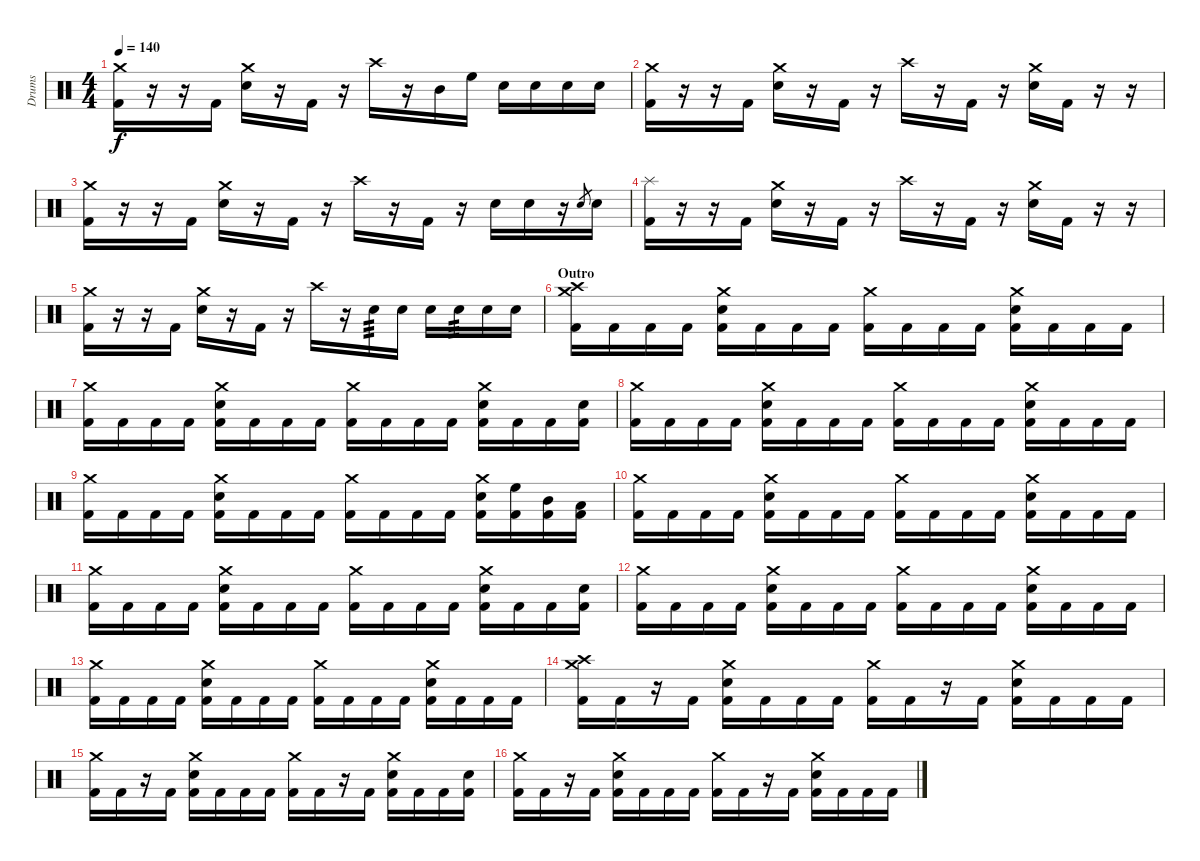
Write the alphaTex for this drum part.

\track ("Drums" "Drums") {instrument percussion}
\staff {score}
\articulation defaults
\ts (4 4)
\tempo 140
\clef neutral
\ks c
("Crash medium (hit)" "Kick (hit) 2").16{dy f} r.16 r.16 "Kick (hit) 2".16 ("Crash medium (hit)" "Electric Snare (hit)").16 r.16 "Kick (hit) 2".16 r.16 "Crash high (hit)".16 r.16 "Mid Tom (hit)".16 "High Floor Tom (hit)".16 "Electric Snare (hit)".16 "Electric Snare (hit)".16 "Electric Snare (hit)".16 "Electric Snare (hit)".16 |
("Crash medium (hit)" "Kick (hit) 2").16 r.16 r.16 "Kick (hit) 2".16 ("Crash medium (hit)" "Electric Snare (hit)").16 r.16 "Kick (hit) 2".16 r.16 "Crash high (hit)".16 r.16 "Kick (hit) 2".16 r.16 ("Crash medium (hit)" "Electric Snare (hit)").16 "Kick (hit) 2".16 r.16 r.16 |
("Crash medium (hit)" "Kick (hit) 2").16 r.16 r.16 "Kick (hit) 2".16 ("Crash medium (hit)" "Electric Snare (hit)").16 r.16 "Kick (hit) 2".16 r.16 "Crash high (hit)".16 r.16 "Kick (hit) 2".16 r.16 "Electric Snare (hit)".16 "Electric Snare (hit)".16 r.16 "Electric Snare (hit)".8{gr} "Electric Snare (hit)".16 |
("Splash (hit)" "Kick (hit) 2").16 r.16 r.16 "Kick (hit) 2".16 ("Crash medium (hit)" "Electric Snare (hit)").16 r.16 "Kick (hit) 2".16 r.16 "Crash high (hit)".16 r.16 "Kick (hit) 2".16 r.16 ("Crash medium (hit)" "Electric Snare (hit)").16 "Kick (hit) 2".16 r.16 r.16 |
("Crash medium (hit)" "Kick (hit) 2").16 r.16 r.16 "Kick (hit) 2".16 ("Crash medium (hit)" "Electric Snare (hit)").16 r.16 "Kick (hit) 2".16 r.16 "Crash high (hit)".16 r.16 "Electric Snare (hit)".16{tp 3} "Electric Snare (hit)".16 "Electric Snare (hit)".16 "Electric Snare (hit)".16{tp 3} "Electric Snare (hit)".16 "Electric Snare (hit)".16 |
\section ("" "Outro")
("Crash medium (hit)" "Crash high (hit)" "Kick (hit) 2").16 "Kick (hit) 2".16 "Kick (hit) 2".16 "Kick (hit) 2".16 ("Crash medium (hit)" "Electric Snare (hit)" "Kick (hit) 2").16 "Kick (hit) 2".16 "Kick (hit) 2".16 "Kick (hit) 2".16 ("Crash medium (hit)" "Kick (hit) 2").16 "Kick (hit) 2".16 "Kick (hit) 2".16 "Kick (hit) 2".16 ("Crash medium (hit)" "Electric Snare (hit)" "Kick (hit) 2").16 "Kick (hit) 2".16 "Kick (hit) 2".16 "Kick (hit) 2".16 |
("Crash medium (hit)" "Kick (hit) 2").16 "Kick (hit) 2".16 "Kick (hit) 2".16 "Kick (hit) 2".16 ("Crash medium (hit)" "Electric Snare (hit)" "Kick (hit) 2").16 "Kick (hit) 2".16 "Kick (hit) 2".16 "Kick (hit) 2".16 ("Crash medium (hit)" "Kick (hit) 2").16 "Kick (hit) 2".16 "Kick (hit) 2".16 "Kick (hit) 2".16 ("Crash medium (hit)" "Electric Snare (hit)" "Kick (hit) 2").16 "Kick (hit) 2".16 "Kick (hit) 2".16 ("Electric Snare (hit)" "Kick (hit) 2").16 |
("Crash medium (hit)" "Kick (hit) 2").16 "Kick (hit) 2".16 "Kick (hit) 2".16 "Kick (hit) 2".16 ("Crash medium (hit)" "Electric Snare (hit)" "Kick (hit) 2").16 "Kick (hit) 2".16 "Kick (hit) 2".16 "Kick (hit) 2".16 ("Crash medium (hit)" "Kick (hit) 2").16 "Kick (hit) 2".16 "Kick (hit) 2".16 "Kick (hit) 2".16 ("Crash medium (hit)" "Electric Snare (hit)" "Kick (hit) 2").16 "Kick (hit) 2".16 "Kick (hit) 2".16 "Kick (hit) 2".16 |
("Crash medium (hit)" "Kick (hit) 2").16 "Kick (hit) 2".16 "Kick (hit) 2".16 "Kick (hit) 2".16 ("Crash medium (hit)" "Electric Snare (hit)" "Kick (hit) 2").16 "Kick (hit) 2".16 "Kick (hit) 2".16 "Kick (hit) 2".16 ("Crash medium (hit)" "Kick (hit) 2").16 "Kick (hit) 2".16 "Kick (hit) 2".16 "Kick (hit) 2".16 ("Crash medium (hit)" "Electric Snare (hit)" "Kick (hit) 2").16 ("High Floor Tom (hit)" "Kick (hit) 2").16 ("Mid Tom (hit)" "Kick (hit) 2").16 ("Low Tom (hit)" "Kick (hit) 2").16 |
("Crash medium (hit)" "Kick (hit) 2").16 "Kick (hit) 2".16 "Kick (hit) 2".16 "Kick (hit) 2".16 ("Crash medium (hit)" "Electric Snare (hit)" "Kick (hit) 2").16 "Kick (hit) 2".16 "Kick (hit) 2".16 "Kick (hit) 2".16 ("Crash medium (hit)" "Kick (hit) 2").16 "Kick (hit) 2".16 "Kick (hit) 2".16 "Kick (hit) 2".16 ("Crash medium (hit)" "Electric Snare (hit)" "Kick (hit) 2").16 "Kick (hit) 2".16 "Kick (hit) 2".16 "Kick (hit) 2".16 |
("Crash medium (hit)" "Kick (hit) 2").16 "Kick (hit) 2".16 "Kick (hit) 2".16 "Kick (hit) 2".16 ("Crash medium (hit)" "Electric Snare (hit)" "Kick (hit) 2").16 "Kick (hit) 2".16 "Kick (hit) 2".16 "Kick (hit) 2".16 ("Crash medium (hit)" "Kick (hit) 2").16 "Kick (hit) 2".16 "Kick (hit) 2".16 "Kick (hit) 2".16 ("Crash medium (hit)" "Electric Snare (hit)" "Kick (hit) 2").16 "Kick (hit) 2".16 "Kick (hit) 2".16 ("Electric Snare (hit)" "Kick (hit) 2").16 |
("Crash medium (hit)" "Kick (hit) 2").16 "Kick (hit) 2".16 "Kick (hit) 2".16 "Kick (hit) 2".16 ("Crash medium (hit)" "Electric Snare (hit)" "Kick (hit) 2").16 "Kick (hit) 2".16 "Kick (hit) 2".16 "Kick (hit) 2".16 ("Crash medium (hit)" "Kick (hit) 2").16 "Kick (hit) 2".16 "Kick (hit) 2".16 "Kick (hit) 2".16 ("Crash medium (hit)" "Electric Snare (hit)" "Kick (hit) 2").16 "Kick (hit) 2".16 "Kick (hit) 2".16 "Kick (hit) 2".16 |
("Crash medium (hit)" "Kick (hit) 2").16 "Kick (hit) 2".16 "Kick (hit) 2".16 "Kick (hit) 2".16 ("Crash medium (hit)" "Electric Snare (hit)" "Kick (hit) 2").16 "Kick (hit) 2".16 "Kick (hit) 2".16 "Kick (hit) 2".16 ("Crash medium (hit)" "Kick (hit) 2").16 "Kick (hit) 2".16 "Kick (hit) 2".16 "Kick (hit) 2".16 ("Crash medium (hit)" "Electric Snare (hit)" "Kick (hit) 2").16 "Kick (hit) 2".16 "Kick (hit) 2".16 "Kick (hit) 2".16 |
("Crash medium (hit)" "Crash high (hit)" "Kick (hit) 2").16 "Kick (hit) 2".16 r.16 "Kick (hit) 2".16 ("Crash medium (hit)" "Electric Snare (hit)" "Kick (hit) 2").16 "Kick (hit) 2".16 "Kick (hit) 2".16 "Kick (hit) 2".16 ("Crash medium (hit)" "Kick (hit) 2").16 "Kick (hit) 2".16 r.16 "Kick (hit) 2".16 ("Crash medium (hit)" "Electric Snare (hit)" "Kick (hit) 2").16 "Kick (hit) 2".16 "Kick (hit) 2".16 "Kick (hit) 2".16 |
("Crash medium (hit)" "Kick (hit) 2").16 "Kick (hit) 2".16 r.16 "Kick (hit) 2".16 ("Crash medium (hit)" "Electric Snare (hit)" "Kick (hit) 2").16 "Kick (hit) 2".16 "Kick (hit) 2".16 "Kick (hit) 2".16 ("Crash medium (hit)" "Kick (hit) 2").16 "Kick (hit) 2".16 r.16 "Kick (hit) 2".16 ("Crash medium (hit)" "Electric Snare (hit)" "Kick (hit) 2").16 "Kick (hit) 2".16 "Kick (hit) 2".16 ("Electric Snare (hit)" "Kick (hit) 2").16 |
("Crash medium (hit)" "Kick (hit) 2").16 "Kick (hit) 2".16 r.16 "Kick (hit) 2".16 ("Crash medium (hit)" "Electric Snare (hit)" "Kick (hit) 2").16 "Kick (hit) 2".16 "Kick (hit) 2".16 "Kick (hit) 2".16 ("Crash medium (hit)" "Kick (hit) 2").16 "Kick (hit) 2".16 r.16 "Kick (hit) 2".16 ("Crash medium (hit)" "Electric Snare (hit)" "Kick (hit) 2").16 "Kick (hit) 2".16 "Kick (hit) 2".16 "Kick (hit) 2".16
